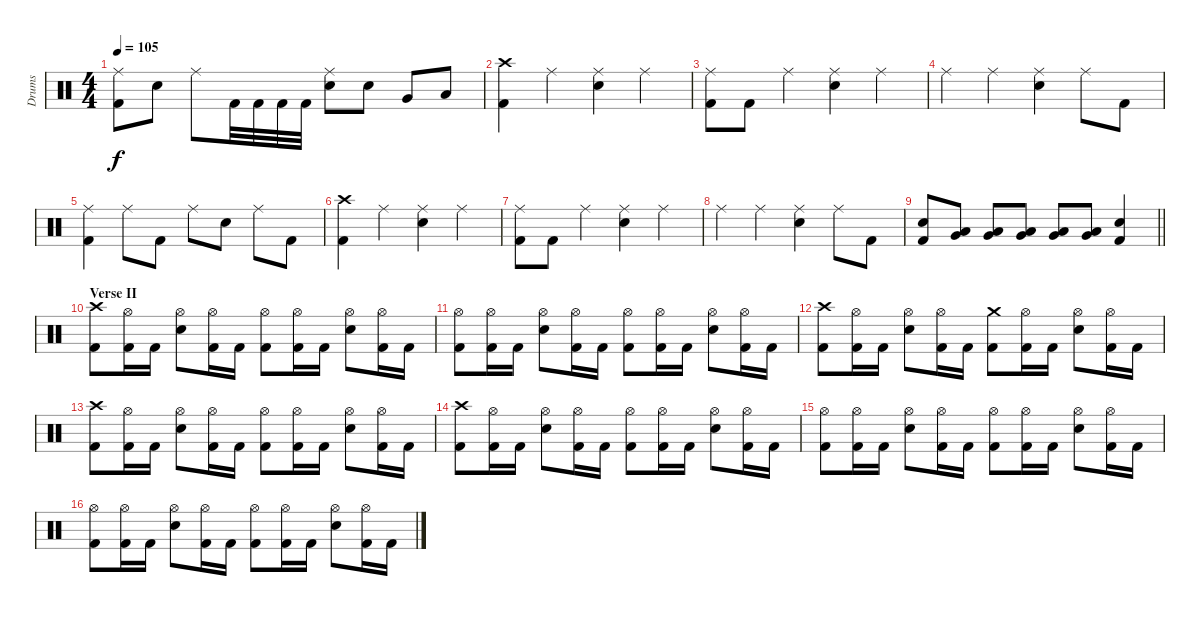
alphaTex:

\track ("Drums" "Drums") {instrument percussion}
\staff {score}
\articulation defaults
\ts (4 4)
\tempo 105
\clef neutral
\ks c
("Ride (middle)" "Kick (hit) 2").8{dy f} "Electric Snare (hit)".8 "Ride (middle)".8 "Kick (hit) 2".32 "Kick (hit) 2".32 "Kick (hit) 2".32 "Kick (hit) 2".32 ("Ride (middle)" "Electric Snare (hit)").8 "Electric Snare (hit)".8 "Very Low Tom (hit)".8 "Low Floor Tom (hit)".8 |
("Crash high (hit)" "Kick (hit) 2").4 "Ride (middle)".4 ("Ride (middle)" "Electric Snare (hit)").4 "Ride (middle)".4 |
("Ride (middle)" "Kick (hit) 2").8 "Kick (hit) 2".8 "Ride (middle)".4 ("Ride (middle)" "Electric Snare (hit)").4 "Ride (middle)".4 |
"Ride (middle)".4 "Ride (middle)".4 ("Ride (middle)" "Electric Snare (hit)").4 "Ride (middle)".8 "Kick (hit) 2".8 |
("Ride (middle)" "Kick (hit) 2").4 "Ride (middle)".8 "Kick (hit) 2".8 "Ride (middle)".8 "Electric Snare (hit)".8 "Ride (middle)".8 "Kick (hit) 2".8 |
("Crash high (hit)" "Kick (hit) 2").4 "Ride (middle)".4 ("Ride (middle)" "Electric Snare (hit)").4 "Ride (middle)".4 |
("Ride (middle)" "Kick (hit) 2").8 "Kick (hit) 2".8 "Ride (middle)".4 ("Ride (middle)" "Electric Snare (hit)").4 "Ride (middle)".4 |
"Ride (middle)".4 "Ride (middle)".4 ("Ride (middle)" "Electric Snare (hit)").4 "Ride (middle)".8 "Kick (hit) 2".8 |
\barLineRight lightlight
("Electric Snare (hit)" "Kick (hit) 2").8 ("Very Low Tom (hit)" "Low Floor Tom (hit)").8 ("Very Low Tom (hit)" "Low Floor Tom (hit)").8 ("Very Low Tom (hit)" "Low Floor Tom (hit)").8 ("Very Low Tom (hit)" "Low Floor Tom (hit)").8 ("Very Low Tom (hit)" "Low Floor Tom (hit)").8 ("Electric Snare (hit)" "Kick (hit) 2").4 |
\section ("" "Verse II")
("Crash high (hit)" "Kick (hit) 2").8 ("Hi-Hat (open)" "Kick (hit) 2").16 "Kick (hit) 2".16 ("Hi-Hat (open)" "Electric Snare (hit)").8 ("Hi-Hat (open)" "Kick (hit) 2").16 "Kick (hit) 2".16 ("Hi-Hat (open)" "Kick (hit) 2").8 ("Hi-Hat (open)" "Kick (hit) 2").16 "Kick (hit) 2".16 ("Hi-Hat (open)" "Electric Snare (hit)").8 ("Hi-Hat (open)" "Kick (hit) 2").16 "Kick (hit) 2".16 |
("Hi-Hat (open)" "Kick (hit) 2").8 ("Hi-Hat (open)" "Kick (hit) 2").16 "Kick (hit) 2".16 ("Hi-Hat (open)" "Electric Snare (hit)").8 ("Hi-Hat (open)" "Kick (hit) 2").16 "Kick (hit) 2".16 ("Hi-Hat (open)" "Kick (hit) 2").8 ("Hi-Hat (open)" "Kick (hit) 2").16 "Kick (hit) 2".16 ("Hi-Hat (open)" "Electric Snare (hit)").8 ("Hi-Hat (open)" "Kick (hit) 2").16 "Kick (hit) 2".16 |
("Crash high (hit)" "Kick (hit) 2").8 ("Hi-Hat (open)" "Kick (hit) 2").16 "Kick (hit) 2".16 ("Hi-Hat (open)" "Electric Snare (hit)").8 ("Hi-Hat (open)" "Kick (hit) 2").16 "Kick (hit) 2".16 ("Crash medium (hit)" "Kick (hit) 2").8 ("Hi-Hat (open)" "Kick (hit) 2").16 "Kick (hit) 2".16 ("Hi-Hat (open)" "Electric Snare (hit)").8 ("Hi-Hat (open)" "Kick (hit) 2").16 "Kick (hit) 2".16 |
("Crash high (hit)" "Kick (hit) 2").8 ("Hi-Hat (open)" "Kick (hit) 2").16 "Kick (hit) 2".16 ("Hi-Hat (open)" "Electric Snare (hit)").8 ("Hi-Hat (open)" "Kick (hit) 2").16 "Kick (hit) 2".16 ("Hi-Hat (open)" "Kick (hit) 2").8 ("Hi-Hat (open)" "Kick (hit) 2").16 "Kick (hit) 2".16 ("Hi-Hat (open)" "Electric Snare (hit)").8 ("Hi-Hat (open)" "Kick (hit) 2").16 "Kick (hit) 2".16 |
("Crash high (hit)" "Kick (hit) 2").8 ("Hi-Hat (open)" "Kick (hit) 2").16 "Kick (hit) 2".16 ("Hi-Hat (open)" "Electric Snare (hit)").8 ("Hi-Hat (open)" "Kick (hit) 2").16 "Kick (hit) 2".16 ("Hi-Hat (open)" "Kick (hit) 2").8 ("Hi-Hat (open)" "Kick (hit) 2").16 "Kick (hit) 2".16 ("Hi-Hat (open)" "Electric Snare (hit)").8 ("Hi-Hat (open)" "Kick (hit) 2").16 "Kick (hit) 2".16 |
("Hi-Hat (open)" "Kick (hit) 2").8 ("Hi-Hat (open)" "Kick (hit) 2").16 "Kick (hit) 2".16 ("Hi-Hat (open)" "Electric Snare (hit)").8 ("Hi-Hat (open)" "Kick (hit) 2").16 "Kick (hit) 2".16 ("Hi-Hat (open)" "Kick (hit) 2").8 ("Hi-Hat (open)" "Kick (hit) 2").16 "Kick (hit) 2".16 ("Hi-Hat (open)" "Electric Snare (hit)").8 ("Hi-Hat (open)" "Kick (hit) 2").16 "Kick (hit) 2".16 |
("Hi-Hat (open)" "Kick (hit) 2").8 ("Hi-Hat (open)" "Kick (hit) 2").16 "Kick (hit) 2".16 ("Hi-Hat (open)" "Electric Snare (hit)").8 ("Hi-Hat (open)" "Kick (hit) 2").16 "Kick (hit) 2".16 ("Hi-Hat (open)" "Kick (hit) 2").8 ("Hi-Hat (open)" "Kick (hit) 2").16 "Kick (hit) 2".16 ("Hi-Hat (open)" "Electric Snare (hit)").8 ("Hi-Hat (open)" "Kick (hit) 2").16 "Kick (hit) 2".16
